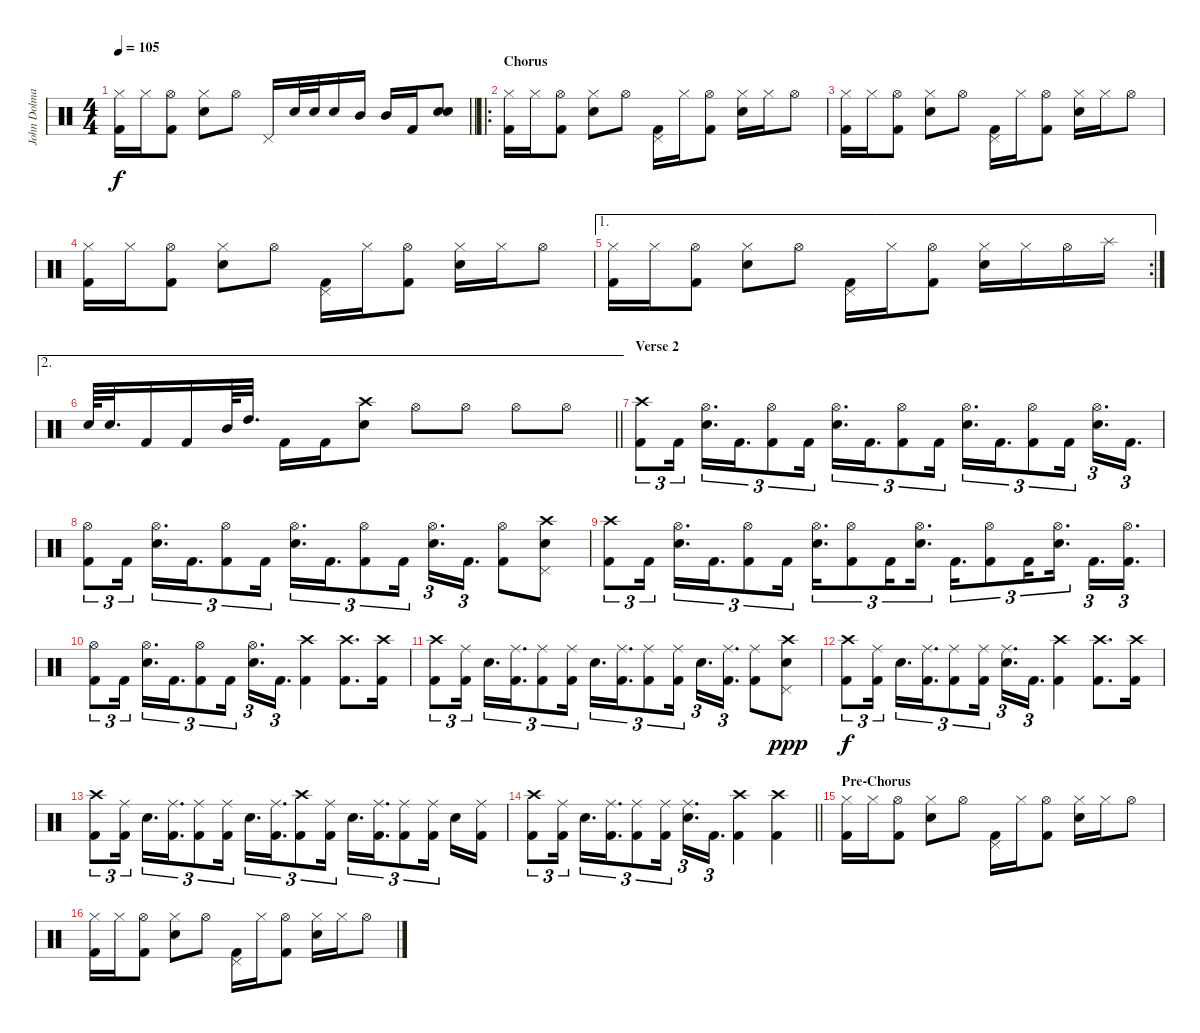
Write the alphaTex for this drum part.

\track ("John Dolmayan" "John Dolma") {instrument percussion}
\staff {score}
\articulation defaults
\ts (4 4)
\tempo 105
\clef neutral
\barLineRight lightlight
\ks c
("Kick (hit) 2" "Hi-Hat (closed)").16{dy f} "Hi-Hat (closed)".16 ("Kick (hit) 2" "Hi-Hat (open)").8 ("Electric Snare (hit)" "Hi-Hat (closed)").8 "Hi-Hat (open)".8 "Pedal Hi-Hat (hit)".16 "Electric Snare (hit)".32 "Electric Snare (hit)".32 "Electric Snare (hit)".16 "Mid Tom (hit)".16 "Mid Tom (hit)".16 "Kick (hit) 2".16 ("Electric Snare (hit)" "Electric Snare (hit)").8 |
\ro
\section ("" "Chorus")
("Kick (hit) 2" "Hi-Hat (closed)").16 "Hi-Hat (closed)".16 ("Kick (hit) 2" "Hi-Hat (open)").8 ("Electric Snare (hit)" "Hi-Hat (closed)").8 "Hi-Hat (open)".8 ("Kick (hit) 2" "Pedal Hi-Hat (hit)").16 "Hi-Hat (closed)".16 ("Kick (hit) 2" "Hi-Hat (open)").8 ("Electric Snare (hit)" "Hi-Hat (closed)").16 "Hi-Hat (closed)".16 "Hi-Hat (open)".8 |
("Kick (hit) 2" "Hi-Hat (closed)").16 "Hi-Hat (closed)".16 ("Kick (hit) 2" "Hi-Hat (open)").8 ("Electric Snare (hit)" "Hi-Hat (closed)").8 "Hi-Hat (open)".8 ("Kick (hit) 2" "Pedal Hi-Hat (hit)").16 "Hi-Hat (closed)".16 ("Kick (hit) 2" "Hi-Hat (open)").8 ("Electric Snare (hit)" "Hi-Hat (closed)").16 "Hi-Hat (closed)".16 "Hi-Hat (open)".8 |
("Kick (hit) 2" "Hi-Hat (closed)").16 "Hi-Hat (closed)".16 ("Kick (hit) 2" "Hi-Hat (open)").8 ("Electric Snare (hit)" "Hi-Hat (closed)").8 "Hi-Hat (open)".8 ("Kick (hit) 2" "Pedal Hi-Hat (hit)").16 "Hi-Hat (closed)".16 ("Kick (hit) 2" "Hi-Hat (open)").8 ("Electric Snare (hit)" "Hi-Hat (closed)").16 "Hi-Hat (closed)".16 "Hi-Hat (open)".8 |
\ae 1
\rc 2
("Kick (hit) 2" "Hi-Hat (closed)").16 "Hi-Hat (closed)".16 ("Kick (hit) 2" "Hi-Hat (open)").8 ("Electric Snare (hit)" "Hi-Hat (closed)").8 "Hi-Hat (open)".8 ("Kick (hit) 2" "Pedal Hi-Hat (hit)").16 "Hi-Hat (closed)".16 ("Kick (hit) 2" "Hi-Hat (open)").8 ("Electric Snare (hit)" "Hi-Hat (closed)").16 "Hi-Hat (closed)".16 "Hi-Hat (open)".16 "Splash (hit)".16 |
\ae 2
\barLineRight lightlight "Electric Snare (hit)".64 "Electric Snare (hit)".32{d} "Kick (hit) 2".16 "Kick (hit) 2".16 "Mid Tom (hit)".64 "High Tom (hit)".32{d} "Kick (hit) 2".16 "Kick (hit) 2".16
("Crash high (hit)" "Electric Snare (hit)").8 "Hi-Hat (open)".8 "Hi-Hat (open)".8 "Hi-Hat (open)".8 "Hi-Hat (open)".8 |
\section ("" "Verse 2")
("Kick (hit) 2" "Crash high (hit)").8{tu (3 2)} "Kick (hit) 2".16{tu (3 2) beam splitsecondary} ("Hi-Hat (open)" "Electric Snare (hit)").16{d tu (3 2)} "Kick (hit) 2".16{d tu (3 2)} ("Kick (hit) 2" "Hi-Hat (open)").8{tu (3 2)} "Kick (hit) 2".16{tu (3 2) beam splitsecondary} ("Hi-Hat (open)" "Electric Snare (hit)").16{d tu (3 2)} "Kick (hit) 2".16{d tu (3 2)} ("Kick (hit) 2" "Hi-Hat (open)").8{tu (3 2)} "Kick (hit) 2".16{tu (3 2) beam splitsecondary} ("Hi-Hat (open)" "Electric Snare (hit)").16{d tu (3 2)} "Kick (hit) 2".16{d tu (3 2)} ("Kick (hit) 2" "Hi-Hat (open)").8{tu (3 2)} "Kick (hit) 2".16{tu (3 2) beam splitsecondary} ("Hi-Hat (open)" "Electric Snare (hit)").16{d tu (3 2)} "Kick (hit) 2".16{d tu (3 2)} |
("Kick (hit) 2" "Hi-Hat (open)").8{tu (3 2)} "Kick (hit) 2".16{tu (3 2) beam splitsecondary} ("Hi-Hat (open)" "Electric Snare (hit)").16{d tu (3 2)} "Kick (hit) 2".16{d tu (3 2)} ("Kick (hit) 2" "Hi-Hat (open)").8{tu (3 2)} "Kick (hit) 2".16{tu (3 2) beam splitsecondary} ("Hi-Hat (open)" "Electric Snare (hit)").16{d tu (3 2)} "Kick (hit) 2".16{d tu (3 2)} ("Kick (hit) 2" "Hi-Hat (open)").8{tu (3 2)} "Kick (hit) 2".16{tu (3 2) beam splitsecondary} ("Hi-Hat (open)" "Electric Snare (hit)").16{d tu (3 2)} "Kick (hit) 2".16{d tu (3 2)} ("Kick (hit) 2" "Hi-Hat (open)").8 ("Crash high (hit)" "Electric Snare (hit)" "Pedal Hi-Hat (hit)").8 |
("Kick (hit) 2" "Crash high (hit)").8{tu (3 2)} "Kick (hit) 2".16{tu (3 2) beam splitsecondary} ("Hi-Hat (open)" "Electric Snare (hit)").16{d tu (3 2)} "Kick (hit) 2".16{d tu (3 2)} ("Kick (hit) 2" "Hi-Hat (open)").8{tu (3 2)} "Kick (hit) 2".16{tu (3 2) beam splitsecondary} ("Hi-Hat (open)" "Electric Snare (hit)").16{d tu (3 2)} ("Kick (hit) 2" "Hi-Hat (open)").8{tu (3 2)} "Kick (hit) 2".16{tu (3 2) beam splitsecondary} ("Hi-Hat (open)" "Electric Snare (hit)").16{d tu (3 2)} "Kick (hit) 2".16{d tu (3 2)} ("Kick (hit) 2" "Hi-Hat (open)").8{tu (3 2)} "Kick (hit) 2".16{tu (3 2) beam splitsecondary} ("Hi-Hat (open)" "Electric Snare (hit)").16{d tu (3 2)} "Kick (hit) 2".16{d tu (3 2)} ("Kick (hit) 2" "Hi-Hat (open)").16{d tu (3 2)} |
("Kick (hit) 2" "Hi-Hat (open)").8{tu (3 2)} "Kick (hit) 2".16{tu (3 2) beam splitsecondary} ("Hi-Hat (open)" "Electric Snare (hit)").16{d tu (3 2)} "Kick (hit) 2".16{d tu (3 2)} ("Kick (hit) 2" "Hi-Hat (open)").8{tu (3 2)} "Kick (hit) 2".16{tu (3 2) beam splitsecondary} ("Hi-Hat (open)" "Electric Snare (hit)").16{d tu (3 2)} "Kick (hit) 2".16{d tu (3 2)} ("Kick (hit) 2" "Crash high (hit)").4 ("Kick (hit) 2" "Crash high (hit)").8{d} ("Kick (hit) 2" "Crash high (hit)").16 |
("Kick (hit) 2" "Crash high (hit)").8{tu (3 2)} ("Kick (hit) 2" "Ride (middle)").16{tu (3 2) beam splitsecondary} "Electric Snare (hit)".16{d tu (3 2)} ("Kick (hit) 2" "Ride (middle)").16{d tu (3 2)} ("Kick (hit) 2" "Ride (middle)").8{tu (3 2)} ("Kick (hit) 2" "Ride (middle)").16{tu (3 2) beam splitsecondary} "Electric Snare (hit)".16{d tu (3 2)} ("Kick (hit) 2" "Ride (middle)").16{d tu (3 2)} ("Kick (hit) 2" "Ride (middle)").8{tu (3 2)} ("Kick (hit) 2" "Ride (middle)").16{tu (3 2) beam splitsecondary} "Electric Snare (hit)".16{d tu (3 2)} ("Kick (hit) 2" "Ride (middle)").16{d tu (3 2)} ("Kick (hit) 2" "Ride (middle)").8 ("Crash high (hit)" "Electric Snare (hit)" "Pedal Hi-Hat (hit)").8{dy ppp} |
("Kick (hit) 2" "Crash high (hit)").8{tu (3 2) dy f} ("Kick (hit) 2" "Ride (middle)").16{tu (3 2) beam splitsecondary} "Electric Snare (hit)".16{d tu (3 2)} ("Kick (hit) 2" "Ride (middle)").16{d tu (3 2)} ("Kick (hit) 2" "Ride (middle)").8{tu (3 2)} ("Kick (hit) 2" "Ride (middle)").16{tu (3 2) beam splitsecondary} ("Electric Snare (hit)" "Ride (middle)").16{d tu (3 2)} "Kick (hit) 2".16{d tu (3 2)} ("Kick (hit) 2" "Crash high (hit)").4 ("Kick (hit) 2" "Crash high (hit)").8{d} ("Kick (hit) 2" "Crash high (hit)").16 |
("Kick (hit) 2" "Crash high (hit)").8{tu (3 2)} ("Kick (hit) 2" "Ride (middle)").16{tu (3 2) beam splitsecondary} "Electric Snare (hit)".16{d tu (3 2)} ("Kick (hit) 2" "Ride (middle)").16{d tu (3 2)} ("Kick (hit) 2" "Ride (middle)").8{tu (3 2)} ("Kick (hit) 2" "Ride (middle)").16{tu (3 2) beam splitsecondary} "Electric Snare (hit)".16{d tu (3 2)} ("Kick (hit) 2" "Ride (middle)").16{d tu (3 2)} ("Kick (hit) 2" "Crash high (hit)").8{tu (3 2)} ("Kick (hit) 2" "Ride (middle)").16{tu (3 2) beam splitsecondary} "Electric Snare (hit)".16{d tu (3 2)} ("Kick (hit) 2" "Ride (middle)").16{d tu (3 2)} ("Kick (hit) 2" "Ride (middle)").8{tu (3 2)} ("Kick (hit) 2" "Ride (middle)").16{tu (3 2) beam splitsecondary} "Electric Snare (hit)".16 ("Kick (hit) 2" "Ride (middle)").16 |
\barLineRight lightlight
("Kick (hit) 2" "Crash high (hit)").8{tu (3 2)} ("Kick (hit) 2" "Ride (middle)").16{tu (3 2) beam splitsecondary} "Electric Snare (hit)".16{d tu (3 2)} ("Kick (hit) 2" "Ride (middle)").16{d tu (3 2)} ("Kick (hit) 2" "Ride (middle)").8{tu (3 2)} ("Kick (hit) 2" "Ride (middle)").16{tu (3 2) beam splitsecondary} ("Electric Snare (hit)" "Ride (middle)").16{d tu (3 2)} "Kick (hit) 2".16{d tu (3 2)} ("Kick (hit) 2" "Crash high (hit)").4 ("Kick (hit) 2" "Crash high (hit)").4 |
\section ("" "Pre-Chorus")
("Kick (hit) 2" "Hi-Hat (closed)").16 "Hi-Hat (closed)".16 ("Kick (hit) 2" "Hi-Hat (open)").8 ("Electric Snare (hit)" "Hi-Hat (closed)").8 "Hi-Hat (open)".8 ("Kick (hit) 2" "Pedal Hi-Hat (hit)").16 "Hi-Hat (closed)".16 ("Kick (hit) 2" "Hi-Hat (open)").8 ("Electric Snare (hit)" "Hi-Hat (closed)").16 "Hi-Hat (closed)".16 "Hi-Hat (open)".8 |
("Kick (hit) 2" "Hi-Hat (closed)").16 "Hi-Hat (closed)".16 ("Kick (hit) 2" "Hi-Hat (open)").8 ("Electric Snare (hit)" "Hi-Hat (closed)").8 "Hi-Hat (open)".8 ("Kick (hit) 2" "Pedal Hi-Hat (hit)").16 "Hi-Hat (closed)".16 ("Kick (hit) 2" "Hi-Hat (open)").8 ("Electric Snare (hit)" "Hi-Hat (closed)").16 "Hi-Hat (closed)".16 "Hi-Hat (open)".8
